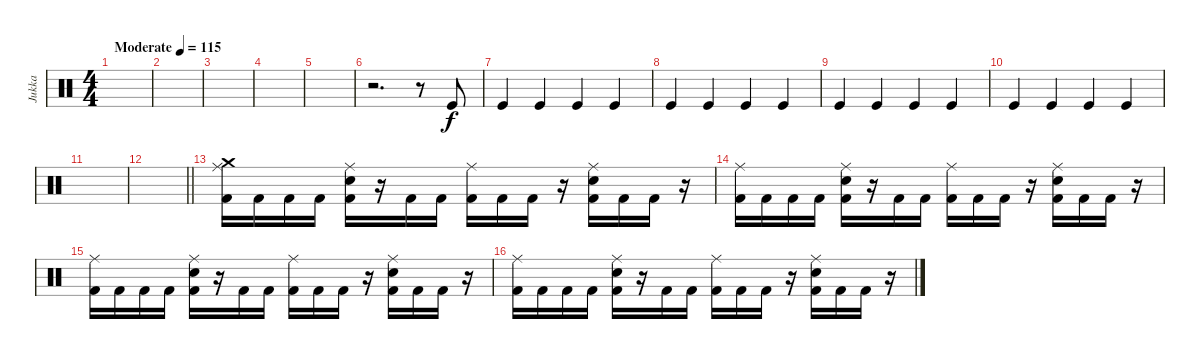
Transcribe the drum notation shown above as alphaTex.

\track ("Jukka" "Jukka") {instrument percussion}
\staff {score}
\articulation defaults
\ts (4 4)
\tempo (115 "Moderate")
\clef neutral
\ks c
|
|
|
|
|
r.2{d} r.8 "Kick (hit)".8 |
"Kick (hit)".4 "Kick (hit)".4 "Kick (hit)".4 "Kick (hit)".4 |
"Kick (hit)".4 "Kick (hit)".4 "Kick (hit)".4 "Kick (hit)".4 |
"Kick (hit)".4 "Kick (hit)".4 "Kick (hit)".4 "Kick (hit)".4 |
"Kick (hit)".4 "Kick (hit)".4 "Kick (hit)".4 "Kick (hit)".4 |
|
\barLineRight lightlight
|
("Crash medium (hit)" "Ride (middle)" "Kick (hit) 2").16 "Kick (hit) 2".16 "Kick (hit) 2".16 "Kick (hit) 2".16 ("Ride (middle)" "Electric Snare (hit)" "Kick (hit) 2").16 r.16 "Kick (hit) 2".16 "Kick (hit) 2".16 ("Ride (middle)" "Kick (hit) 2").16 "Kick (hit) 2".16 "Kick (hit) 2".16 r.16 ("Ride (middle)" "Electric Snare (hit)" "Kick (hit) 2").16 "Kick (hit) 2".16 "Kick (hit) 2".16 r.16 |
("Ride (middle)" "Kick (hit) 2").16 "Kick (hit) 2".16 "Kick (hit) 2".16 "Kick (hit) 2".16 ("Ride (middle)" "Electric Snare (hit)" "Kick (hit) 2").16 r.16 "Kick (hit) 2".16 "Kick (hit) 2".16 ("Ride (middle)" "Kick (hit) 2").16 "Kick (hit) 2".16 "Kick (hit) 2".16 r.16 ("Ride (middle)" "Electric Snare (hit)" "Kick (hit) 2").16 "Kick (hit) 2".16 "Kick (hit) 2".16 r.16 |
("Ride (middle)" "Kick (hit) 2").16 "Kick (hit) 2".16 "Kick (hit) 2".16 "Kick (hit) 2".16 ("Ride (middle)" "Electric Snare (hit)" "Kick (hit) 2").16 r.16 "Kick (hit) 2".16 "Kick (hit) 2".16 ("Ride (middle)" "Kick (hit) 2").16 "Kick (hit) 2".16 "Kick (hit) 2".16 r.16 ("Ride (middle)" "Electric Snare (hit)" "Kick (hit) 2").16 "Kick (hit) 2".16 "Kick (hit) 2".16 r.16 |
("Ride (middle)" "Kick (hit) 2").16 "Kick (hit) 2".16 "Kick (hit) 2".16 "Kick (hit) 2".16 ("Ride (middle)" "Electric Snare (hit)" "Kick (hit) 2").16 r.16 "Kick (hit) 2".16 "Kick (hit) 2".16 ("Ride (middle)" "Kick (hit) 2").16 "Kick (hit) 2".16 "Kick (hit) 2".16 r.16 ("Ride (middle)" "Electric Snare (hit)" "Kick (hit) 2").16 "Kick (hit) 2".16 "Kick (hit) 2".16 r.16
